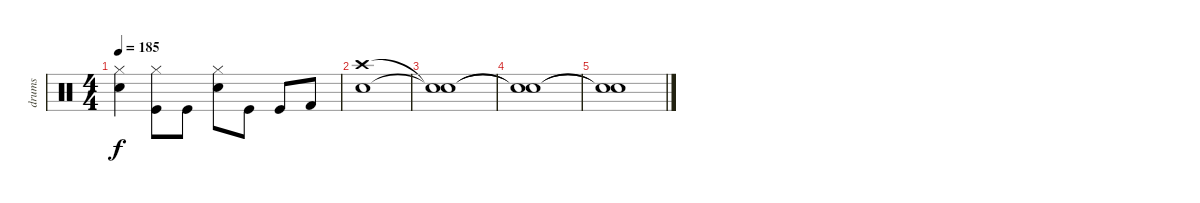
\track ("drums" "drums") {instrument percussion}
\staff {score}
\articulation defaults
\ts (4 4)
\tempo 185
\clef neutral
\ks c
("Hi-Hat (closed)" "Electric Snare (hit)").4{dy f} ("Hi-Hat (closed)" "Kick (hit)").8 "Kick (hit)".8 ("Hi-Hat (closed)" "Electric Snare (hit)").8 "Kick (hit)".8 "Kick (hit)".8 "Kick (hit) 2".8 |
("Crash high (hit)" "Electric Snare (hit)").1{volume 4} |
("Snare (hit)"{t} "Snare (hit)"{t}).1 |
("Snare (hit)"{t} "Snare (hit)"{t}).1 |
("Snare (hit)"{t} "Snare (hit)"{t}).1
